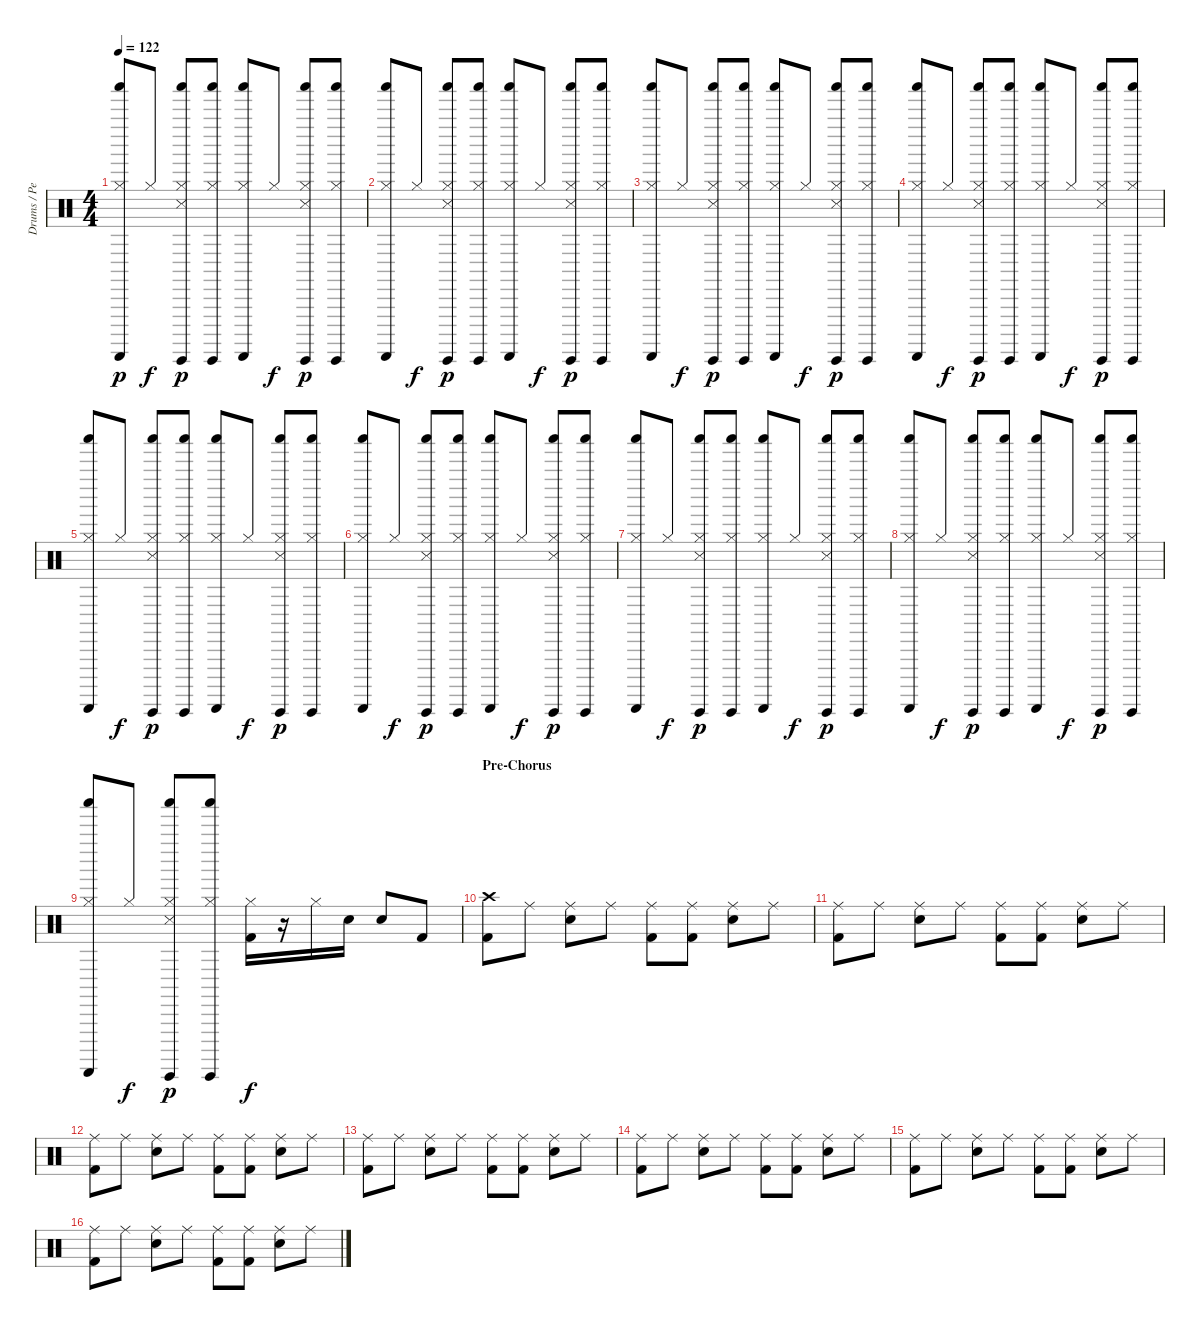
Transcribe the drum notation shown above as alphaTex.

\track ("Drums / Percussion" "Drums / Pe") {instrument percussion}
\staff {score}
\articulation defaults
\ts (4 4)
\tempo 122
\clef neutral
\ks c
("Hi-Hat (closed)" "Shaker (hit)" "Guiro (scrap-return)").8{dy p} "Hi-Hat (closed)".8{dy f} ("Hi-Hat (closed)" "Shaker (hit)" "Guiro (hit)" "Snare (side stick) 3").8{dy p} ("Hi-Hat (closed)" "Shaker (hit)" "Guiro (hit)").8 ("Hi-Hat (closed)" "Shaker (hit)" "Guiro (scrap-return)").8 "Hi-Hat (closed)".8{dy f} ("Hi-Hat (closed)" "Shaker (hit)" "Guiro (hit)" "Snare (side stick) 3").8{dy p} ("Hi-Hat (closed)" "Shaker (hit)" "Guiro (hit)").8 |
("Hi-Hat (closed)" "Shaker (hit)" "Guiro (scrap-return)").8 "Hi-Hat (closed)".8{dy f} ("Hi-Hat (closed)" "Shaker (hit)" "Guiro (hit)" "Snare (side stick) 3").8{dy p} ("Hi-Hat (closed)" "Shaker (hit)" "Guiro (hit)").8 ("Hi-Hat (closed)" "Shaker (hit)" "Guiro (scrap-return)").8 "Hi-Hat (closed)".8{dy f} ("Hi-Hat (closed)" "Shaker (hit)" "Guiro (hit)" "Snare (side stick) 3").8{dy p} ("Hi-Hat (closed)" "Shaker (hit)" "Guiro (hit)").8 |
("Hi-Hat (closed)" "Shaker (hit)" "Guiro (scrap-return)").8 "Hi-Hat (closed)".8{dy f} ("Hi-Hat (closed)" "Shaker (hit)" "Guiro (hit)" "Snare (side stick) 3").8{dy p} ("Hi-Hat (closed)" "Shaker (hit)" "Guiro (hit)").8 ("Hi-Hat (closed)" "Shaker (hit)" "Guiro (scrap-return)").8 "Hi-Hat (closed)".8{dy f} ("Hi-Hat (closed)" "Shaker (hit)" "Guiro (hit)" "Snare (side stick) 3").8{dy p} ("Hi-Hat (closed)" "Shaker (hit)" "Guiro (hit)").8 |
("Hi-Hat (closed)" "Shaker (hit)" "Guiro (scrap-return)").8 "Hi-Hat (closed)".8{dy f} ("Hi-Hat (closed)" "Shaker (hit)" "Guiro (hit)" "Snare (side stick) 3").8{dy p} ("Hi-Hat (closed)" "Shaker (hit)" "Guiro (hit)").8 ("Hi-Hat (closed)" "Shaker (hit)" "Guiro (scrap-return)").8 "Hi-Hat (closed)".8{dy f} ("Hi-Hat (closed)" "Shaker (hit)" "Guiro (hit)" "Snare (side stick) 3").8{dy p} ("Hi-Hat (closed)" "Shaker (hit)" "Guiro (hit)").8 |
("Hi-Hat (closed)" "Shaker (hit)" "Guiro (scrap-return)").8 "Hi-Hat (closed)".8{dy f} ("Hi-Hat (closed)" "Shaker (hit)" "Guiro (hit)" "Snare (side stick) 3").8{dy p} ("Hi-Hat (closed)" "Shaker (hit)" "Guiro (hit)").8 ("Hi-Hat (closed)" "Shaker (hit)" "Guiro (scrap-return)").8 "Hi-Hat (closed)".8{dy f} ("Hi-Hat (closed)" "Shaker (hit)" "Guiro (hit)" "Snare (side stick) 3").8{dy p} ("Hi-Hat (closed)" "Shaker (hit)" "Guiro (hit)").8 |
("Hi-Hat (closed)" "Shaker (hit)" "Guiro (scrap-return)").8 "Hi-Hat (closed)".8{dy f} ("Hi-Hat (closed)" "Shaker (hit)" "Guiro (hit)" "Snare (side stick) 3").8{dy p} ("Hi-Hat (closed)" "Shaker (hit)" "Guiro (hit)").8 ("Hi-Hat (closed)" "Shaker (hit)" "Guiro (scrap-return)").8 "Hi-Hat (closed)".8{dy f} ("Hi-Hat (closed)" "Shaker (hit)" "Guiro (hit)" "Snare (side stick) 3").8{dy p} ("Hi-Hat (closed)" "Shaker (hit)" "Guiro (hit)").8 |
("Hi-Hat (closed)" "Shaker (hit)" "Guiro (scrap-return)").8 "Hi-Hat (closed)".8{dy f} ("Hi-Hat (closed)" "Shaker (hit)" "Guiro (hit)" "Snare (side stick) 3").8{dy p} ("Hi-Hat (closed)" "Shaker (hit)" "Guiro (hit)").8 ("Hi-Hat (closed)" "Shaker (hit)" "Guiro (scrap-return)").8 "Hi-Hat (closed)".8{dy f} ("Hi-Hat (closed)" "Shaker (hit)" "Guiro (hit)" "Snare (side stick) 3").8{dy p} ("Hi-Hat (closed)" "Shaker (hit)" "Guiro (hit)").8 |
("Hi-Hat (closed)" "Shaker (hit)" "Guiro (scrap-return)").8 "Hi-Hat (closed)".8{dy f} ("Hi-Hat (closed)" "Shaker (hit)" "Guiro (hit)" "Snare (side stick) 3").8{dy p} ("Hi-Hat (closed)" "Shaker (hit)" "Guiro (hit)").8 ("Hi-Hat (closed)" "Shaker (hit)" "Guiro (scrap-return)").8 "Hi-Hat (closed)".8{dy f} ("Hi-Hat (closed)" "Shaker (hit)" "Guiro (hit)" "Snare (side stick) 3").8{dy p} ("Hi-Hat (closed)" "Shaker (hit)" "Guiro (hit)").8 |
("Hi-Hat (closed)" "Shaker (hit)" "Guiro (scrap-return)").8 "Hi-Hat (closed)".8{dy f} ("Hi-Hat (closed)" "Shaker (hit)" "Guiro (hit)" "Snare (side stick) 3").8{dy p} ("Hi-Hat (closed)" "Shaker (hit)" "Guiro (hit)").8 ("Hi-Hat (closed)" "Kick (hit) 2").16{dy f} r.16 "Hi-Hat (closed)".16 "Snare (hit) 2".16 "Snare (hit) 2".8 "Kick (hit) 2".8 |
\section ("" "Pre-Chorus")
("Crash high (hit)" "Kick (hit) 2").8 "Ride (middle)".8 ("Ride (middle)" "Snare (hit) 2").8 "Ride (middle)".8 ("Ride (middle)" "Kick (hit) 2").8 ("Ride (middle)" "Kick (hit) 2").8 ("Ride (middle)" "Snare (hit) 2").8 "Ride (middle)".8 |
("Ride (middle)" "Kick (hit) 2").8 "Ride (middle)".8 ("Ride (middle)" "Snare (hit) 2").8 "Ride (middle)".8 ("Ride (middle)" "Kick (hit) 2").8 ("Ride (middle)" "Kick (hit) 2").8 ("Ride (middle)" "Snare (hit) 2").8 "Ride (middle)".8 |
("Ride (middle)" "Kick (hit) 2").8 "Ride (middle)".8 ("Ride (middle)" "Snare (hit) 2").8 "Ride (middle)".8 ("Ride (middle)" "Kick (hit) 2").8 ("Ride (middle)" "Kick (hit) 2").8 ("Ride (middle)" "Snare (hit) 2").8 "Ride (middle)".8 |
("Ride (middle)" "Kick (hit) 2").8 "Ride (middle)".8 ("Ride (middle)" "Snare (hit) 2").8 "Ride (middle)".8 ("Ride (middle)" "Kick (hit) 2").8 ("Ride (middle)" "Kick (hit) 2").8 ("Ride (middle)" "Snare (hit) 2").8 "Ride (middle)".8 |
("Ride (middle)" "Kick (hit) 2").8 "Ride (middle)".8 ("Ride (middle)" "Snare (hit) 2").8 "Ride (middle)".8 ("Ride (middle)" "Kick (hit) 2").8 ("Ride (middle)" "Kick (hit) 2").8 ("Ride (middle)" "Snare (hit) 2").8 "Ride (middle)".8 |
("Ride (middle)" "Kick (hit) 2").8 "Ride (middle)".8 ("Ride (middle)" "Snare (hit) 2").8 "Ride (middle)".8 ("Ride (middle)" "Kick (hit) 2").8 ("Ride (middle)" "Kick (hit) 2").8 ("Ride (middle)" "Snare (hit) 2").8 "Ride (middle)".8 |
("Ride (middle)" "Kick (hit) 2").8 "Ride (middle)".8 ("Ride (middle)" "Snare (hit) 2").8 "Ride (middle)".8 ("Ride (middle)" "Kick (hit) 2").8 ("Ride (middle)" "Kick (hit) 2").8 ("Ride (middle)" "Snare (hit) 2").8 "Ride (middle)".8
